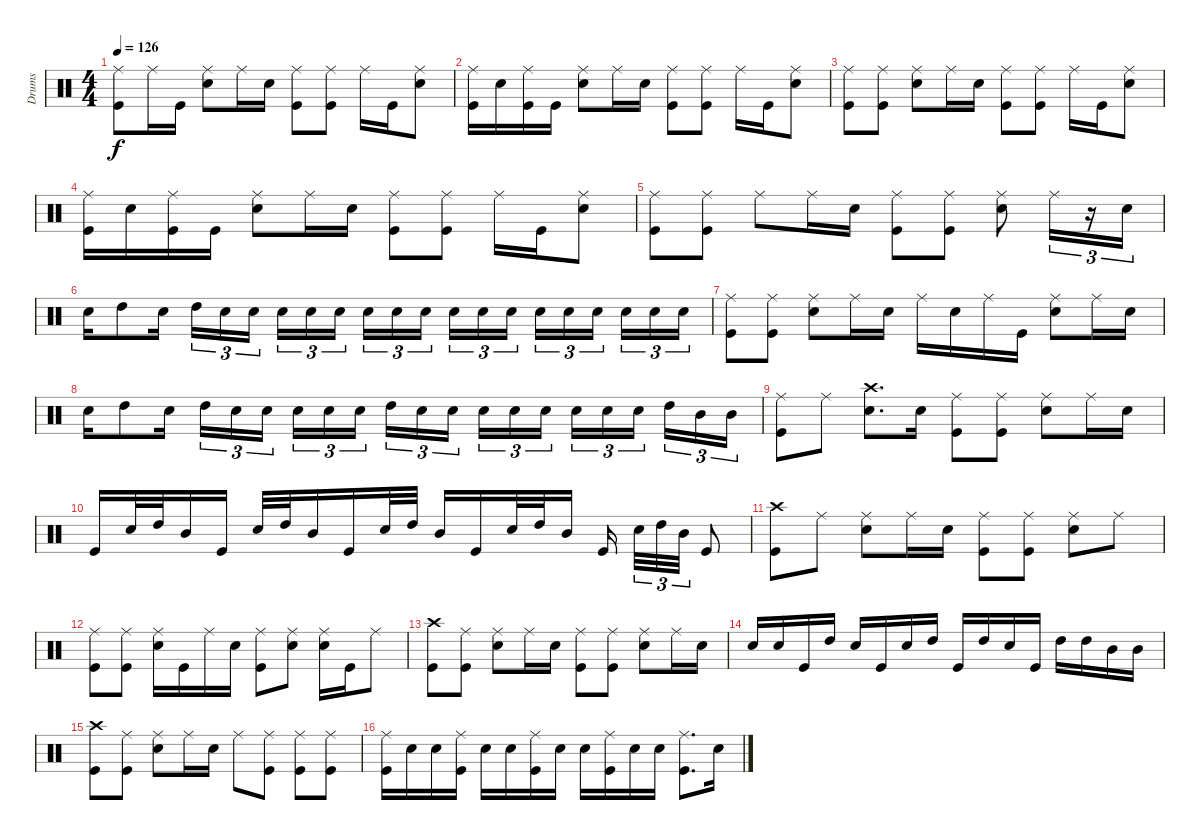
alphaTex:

\track ("Drums" "Drums") {instrument percussion}
\staff {score}
\articulation defaults
\ts (4 4)
\tempo 126
\clef neutral
\ks c
("Ride (middle)" "Kick (hit)").8{dy f} "Ride (middle)".16 "Kick (hit)".16 ("Ride (middle)" "Electric Snare (hit)").8 "Ride (middle)".16 "Electric Snare (hit)".16 ("Ride (middle)" "Kick (hit)").8 ("Ride (middle)" "Kick (hit)").8 "Ride (middle)".16 "Kick (hit)".16 ("Ride (middle)" "Electric Snare (hit)").8 |
("Ride (middle)" "Kick (hit)").16 "Electric Snare (hit)".16 ("Ride (middle)" "Kick (hit)").16 "Kick (hit)".16 ("Ride (middle)" "Electric Snare (hit)").8 "Ride (middle)".16 "Electric Snare (hit)".16 ("Ride (middle)" "Kick (hit)").8 ("Ride (middle)" "Kick (hit)").8 "Ride (middle)".16 "Kick (hit)".16 ("Ride (middle)" "Electric Snare (hit)").8 |
("Ride (middle)" "Kick (hit)").8 ("Ride (middle)" "Kick (hit)").8 ("Ride (middle)" "Electric Snare (hit)").8 "Ride (middle)".16 "Electric Snare (hit)".16 ("Ride (middle)" "Kick (hit)").8 ("Ride (middle)" "Kick (hit)").8 "Ride (middle)".16 "Kick (hit)".16 ("Ride (middle)" "Electric Snare (hit)").8 |
("Ride (middle)" "Kick (hit)").16 "Electric Snare (hit)".16 ("Ride (middle)" "Kick (hit)").16 "Kick (hit)".16 ("Ride (middle)" "Electric Snare (hit)").8 "Ride (middle)".16 "Electric Snare (hit)".16 ("Ride (middle)" "Kick (hit)").8 ("Ride (middle)" "Kick (hit)").8 "Ride (middle)".16 "Kick (hit)".16 ("Ride (middle)" "Electric Snare (hit)").8 |
("Ride (middle)" "Kick (hit)").8 ("Ride (middle)" "Kick (hit)").8 "Ride (middle)".8 "Ride (middle)".16 "Electric Snare (hit)".16 ("Ride (middle)" "Kick (hit)").8 ("Ride (middle)" "Kick (hit)").8 ("Ride (middle)" "Electric Snare (hit)").8 "Ride (middle)".16{tu (3 2)} r.16{tu (3 2)} "Electric Snare (hit)".16{tu (3 2)} |
"Electric Snare (hit)".16 "High Tom (hit)".8 "Electric Snare (hit)".16 "High Tom (hit)".16{tu (3 2)} "Electric Snare (hit)".16{tu (3 2)} "Electric Snare (hit)".16{tu (3 2) beam splitsecondary} "Electric Snare (hit)".16{tu (3 2)} "Electric Snare (hit)".16{tu (3 2)} "Electric Snare (hit)".16{tu (3 2)} "Electric Snare (hit)".16{tu (3 2)} "Electric Snare (hit)".16{tu (3 2)} "Electric Snare (hit)".16{tu (3 2) beam splitsecondary} "Electric Snare (hit)".16{tu (3 2)} "Electric Snare (hit)".16{tu (3 2)} "Electric Snare (hit)".16{tu (3 2)} "Electric Snare (hit)".16{tu (3 2)} "Electric Snare (hit)".16{tu (3 2)} "Electric Snare (hit)".16{tu (3 2) beam splitsecondary} "Electric Snare (hit)".16{tu (3 2)} "Electric Snare (hit)".16{tu (3 2)} "Electric Snare (hit)".16{tu (3 2)} |
("Ride (middle)" "Kick (hit)").8 ("Ride (middle)" "Kick (hit)").8 ("Ride (middle)" "Electric Snare (hit)").8 "Ride (middle)".16 "Electric Snare (hit)".16 "Ride (middle)".16 "Electric Snare (hit)".16 "Ride (middle)".16 "Kick (hit)".16 ("Ride (middle)" "Electric Snare (hit)").8 "Ride (middle)".16 "Electric Snare (hit)".16 |
"Electric Snare (hit)".16 "High Tom (hit)".8 "Electric Snare (hit)".16 "High Tom (hit)".16{tu (3 2)} "Electric Snare (hit)".16{tu (3 2)} "Electric Snare (hit)".16{tu (3 2) beam splitsecondary} "Electric Snare (hit)".16{tu (3 2)} "Electric Snare (hit)".16{tu (3 2)} "Electric Snare (hit)".16{tu (3 2)} "High Tom (hit)".16{tu (3 2)} "Electric Snare (hit)".16{tu (3 2)} "Electric Snare (hit)".16{tu (3 2) beam splitsecondary} "Electric Snare (hit)".16{tu (3 2)} "Electric Snare (hit)".16{tu (3 2)} "Electric Snare (hit)".16{tu (3 2)} "Electric Snare (hit)".16{tu (3 2)} "Electric Snare (hit)".16{tu (3 2)} "Electric Snare (hit)".16{tu (3 2) beam splitsecondary} "High Tom (hit)".16{tu (3 2)} "Mid Tom (hit)".16{tu (3 2)} "Mid Tom (hit)".16{tu (3 2)} |
("Ride (middle)" "Kick (hit)").8 "Ride (middle)".8 ("Crash high (hit)" "Electric Snare (hit)").8{d} "Electric Snare (hit)".16 ("Ride (middle)" "Kick (hit)").8 ("Ride (middle)" "Kick (hit)").8 ("Ride (middle)" "Electric Snare (hit)").8 "Ride (middle)".16 "Electric Snare (hit)".16 |
"Kick (hit)".16 "Electric Snare (hit)".32 "High Tom (hit)".32 "Mid Tom (hit)".16 "Kick (hit)".16 "Electric Snare (hit)".32 "High Tom (hit)".32 "Mid Tom (hit)".16 "Kick (hit)".16 "Electric Snare (hit)".32 "High Tom (hit)".32 "Mid Tom (hit)".16 "Kick (hit)".16 "Electric Snare (hit)".32 "High Tom (hit)".32 "Mid Tom (hit)".16 "Kick (hit)".16{beam splitsecondary} "Electric Snare (hit)".32{tu (3 2)} "High Tom (hit)".32{tu (3 2)} "Mid Tom (hit)".32{tu (3 2)} "Kick (hit)".8 |
("Crash high (hit)" "Kick (hit)").8 "Ride (middle)".8 ("Ride (middle)" "Electric Snare (hit)").8 "Ride (middle)".16 "Electric Snare (hit)".16 ("Ride (middle)" "Kick (hit)").8 ("Ride (middle)" "Kick (hit)").8 ("Ride (middle)" "Electric Snare (hit)").8 "Ride (middle)".8 |
("Ride (middle)" "Kick (hit)").8 ("Ride (middle)" "Kick (hit)").8 ("Ride (middle)" "Electric Snare (hit)").16 "Kick (hit)".16 "Ride (middle)".16 "Electric Snare (hit)".16 ("Ride (middle)" "Kick (hit)").8 ("Ride (middle)" "Electric Snare (hit)").8 ("Ride (middle)" "Electric Snare (hit)").16 "Kick (hit)".16 "Ride (middle)".8 |
("Crash high (hit)" "Kick (hit)").8 ("Ride (middle)" "Kick (hit)").8 ("Ride (middle)" "Electric Snare (hit)").8 "Ride (middle)".16 "Electric Snare (hit)".16 ("Ride (middle)" "Kick (hit)").8 ("Ride (middle)" "Kick (hit)").8 ("Ride (middle)" "Electric Snare (hit)").8 "Ride (middle)".16 "Electric Snare (hit)".16 |
"Electric Snare (hit)".16 "Electric Snare (hit)".16 "Kick (hit)".16 "High Tom (hit)".16 "Electric Snare (hit)".16 "Kick (hit)".16 "Electric Snare (hit)".16 "High Tom (hit)".16 "Kick (hit)".16 "High Tom (hit)".16 "Electric Snare (hit)".16 "Kick (hit)".16 "High Tom (hit)".16 "High Tom (hit)".16 "Mid Tom (hit)".16 "Mid Tom (hit)".16 |
("Crash high (hit)" "Kick (hit)").8 ("Ride (middle)" "Kick (hit)").8 ("Ride (middle)" "Electric Snare (hit)").8 "Ride (middle)".16 "Electric Snare (hit)".16 "Ride (middle)".8 ("Ride (middle)" "Kick (hit)").8 ("Ride (middle)" "Kick (hit)").8 ("Ride (middle)" "Kick (hit)").8 |
("Ride (middle)" "Kick (hit)").16 "Electric Snare (hit)".16 "Electric Snare (hit)".16 ("Ride (middle)" "Kick (hit)").16 "Electric Snare (hit)".16 "Electric Snare (hit)".16 ("Ride (middle)" "Kick (hit)").16 "Electric Snare (hit)".16 "Electric Snare (hit)".16 ("Ride (middle)" "Kick (hit)").16 "Electric Snare (hit)".16 "Electric Snare (hit)".16 ("Ride (middle)" "Kick (hit)").8{d} "Electric Snare (hit)".16
